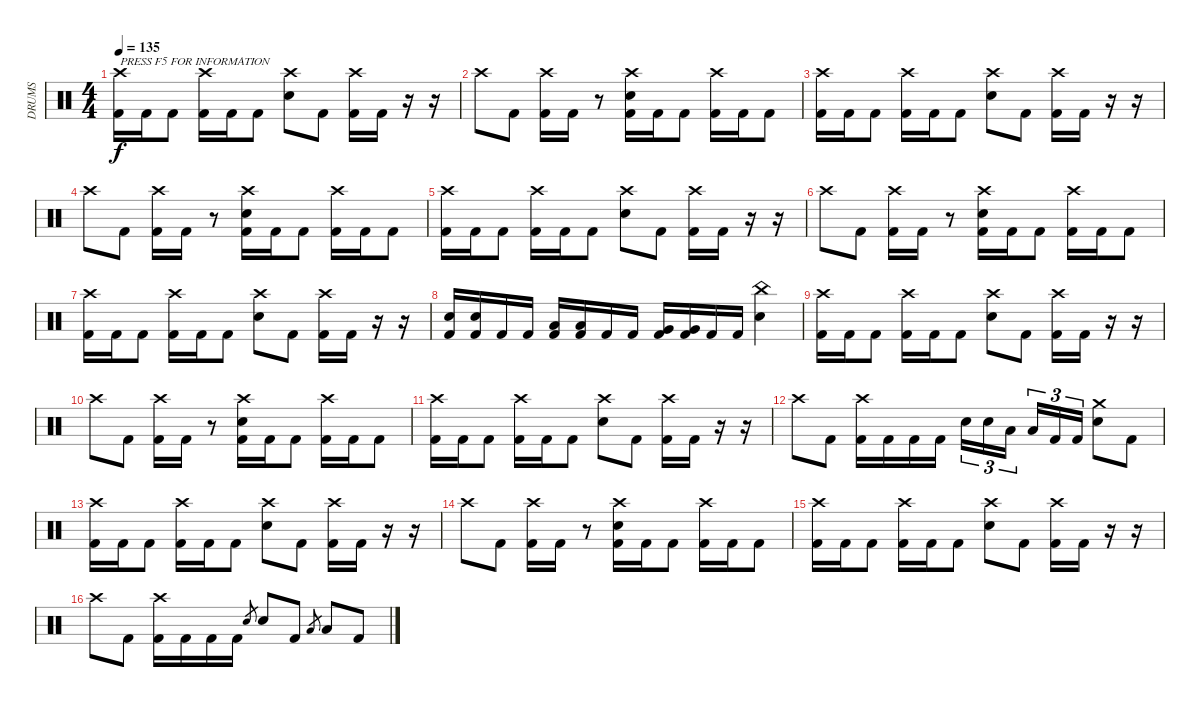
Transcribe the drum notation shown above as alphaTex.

\track ("DRUMS" "DRUMS") {instrument percussion}
\staff {score}
\articulation defaults
\ts (4 4)
\tempo 135
\clef neutral
\ks c
("Crash high (hit)" "Kick (hit) 2").16{txt "PRESS F5 FOR INFORMATION" dy f} "Kick (hit) 2".16 "Kick (hit) 2".8 ("Crash high (hit)" "Kick (hit) 2").16 "Kick (hit) 2".16 "Kick (hit) 2".8 ("Crash high (hit)" "Electric Snare (hit)").8 "Kick (hit) 2".8 ("Crash high (hit)" "Kick (hit) 2").16 "Kick (hit) 2".16 r.16 r.16 |
"Crash high (hit)".8 "Kick (hit) 2".8 ("Crash high (hit)" "Kick (hit) 2").16 "Kick (hit) 2".16 r.8 ("Crash high (hit)" "Electric Snare (hit)" "Kick (hit) 2").16 "Kick (hit) 2".16 "Kick (hit) 2".8 ("Crash high (hit)" "Kick (hit) 2").16 "Kick (hit) 2".16 "Kick (hit) 2".8 |
("Crash high (hit)" "Kick (hit) 2").16 "Kick (hit) 2".16 "Kick (hit) 2".8 ("Crash high (hit)" "Kick (hit) 2").16 "Kick (hit) 2".16 "Kick (hit) 2".8 ("Crash high (hit)" "Electric Snare (hit)").8 "Kick (hit) 2".8 ("Crash high (hit)" "Kick (hit) 2").16 "Kick (hit) 2".16 r.16 r.16 |
"Crash high (hit)".8 "Kick (hit) 2".8 ("Crash high (hit)" "Kick (hit) 2").16 "Kick (hit) 2".16 r.8 ("Crash high (hit)" "Electric Snare (hit)" "Kick (hit) 2").16 "Kick (hit) 2".16 "Kick (hit) 2".8 ("Crash high (hit)" "Kick (hit) 2").16 "Kick (hit) 2".16 "Kick (hit) 2".8 |
("Crash high (hit)" "Kick (hit) 2").16 "Kick (hit) 2".16 "Kick (hit) 2".8 ("Crash high (hit)" "Kick (hit) 2").16 "Kick (hit) 2".16 "Kick (hit) 2".8 ("Crash high (hit)" "Electric Snare (hit)").8 "Kick (hit) 2".8 ("Crash high (hit)" "Kick (hit) 2").16 "Kick (hit) 2".16 r.16 r.16 |
"Crash high (hit)".8 "Kick (hit) 2".8 ("Crash high (hit)" "Kick (hit) 2").16 "Kick (hit) 2".16 r.8 ("Crash high (hit)" "Electric Snare (hit)" "Kick (hit) 2").16 "Kick (hit) 2".16 "Kick (hit) 2".8 ("Crash high (hit)" "Kick (hit) 2").16 "Kick (hit) 2".16 "Kick (hit) 2".8 |
("Crash high (hit)" "Kick (hit) 2").16 "Kick (hit) 2".16 "Kick (hit) 2".8 ("Crash high (hit)" "Kick (hit) 2").16 "Kick (hit) 2".16 "Kick (hit) 2".8 ("Crash high (hit)" "Electric Snare (hit)").8 "Kick (hit) 2".8 ("Crash high (hit)" "Kick (hit) 2").16 "Kick (hit) 2".16 r.16 r.16 |
("Electric Snare (hit)" "Kick (hit) 2").16 ("Electric Snare (hit)" "Kick (hit) 2").16 "Kick (hit) 2".16 "Kick (hit) 2".16 ("Low Tom (hit)" "Kick (hit) 2").16 ("Low Tom (hit)" "Kick (hit) 2").16 "Kick (hit) 2".16 "Kick (hit) 2".16 ("Very Low Tom (hit)" "Kick (hit) 2").16 ("Very Low Tom (hit)" "Kick (hit) 2").16 "Kick (hit) 2".16 "Kick (hit) 2".16 ("China (hit)" "Electric Snare (hit)").4 |
("Crash high (hit)" "Kick (hit) 2").16 "Kick (hit) 2".16 "Kick (hit) 2".8 ("Crash high (hit)" "Kick (hit) 2").16 "Kick (hit) 2".16 "Kick (hit) 2".8 ("Crash high (hit)" "Electric Snare (hit)").8 "Kick (hit) 2".8 ("Crash high (hit)" "Kick (hit) 2").16 "Kick (hit) 2".16 r.16 r.16 |
"Crash high (hit)".8 "Kick (hit) 2".8 ("Crash high (hit)" "Kick (hit) 2").16 "Kick (hit) 2".16 r.8 ("Crash high (hit)" "Electric Snare (hit)" "Kick (hit) 2").16 "Kick (hit) 2".16 "Kick (hit) 2".8 ("Crash high (hit)" "Kick (hit) 2").16 "Kick (hit) 2".16 "Kick (hit) 2".8 |
("Crash high (hit)" "Kick (hit) 2").16 "Kick (hit) 2".16 "Kick (hit) 2".8 ("Crash high (hit)" "Kick (hit) 2").16 "Kick (hit) 2".16 "Kick (hit) 2".8 ("Crash high (hit)" "Electric Snare (hit)").8 "Kick (hit) 2".8 ("Crash high (hit)" "Kick (hit) 2").16 "Kick (hit) 2".16 r.16 r.16 |
"Crash high (hit)".8 "Kick (hit) 2".8 ("Crash high (hit)" "Kick (hit) 2").16 "Kick (hit) 2".16 "Kick (hit) 2".16 "Kick (hit) 2".16 "Electric Snare (hit)".16{tu (3 2)} "Electric Snare (hit)".16{tu (3 2)} "Low Tom (hit)".16{tu (3 2)} "Low Tom (hit)".16{tu (3 2)} "Kick (hit) 2".16{tu (3 2)} "Kick (hit) 2".16{tu (3 2)} ("Crash medium (hit)" "Electric Snare (hit)").8 "Kick (hit) 2".8 |
("Crash high (hit)" "Kick (hit) 2").16 "Kick (hit) 2".16 "Kick (hit) 2".8 ("Crash high (hit)" "Kick (hit) 2").16 "Kick (hit) 2".16 "Kick (hit) 2".8 ("Crash high (hit)" "Electric Snare (hit)").8 "Kick (hit) 2".8 ("Crash high (hit)" "Kick (hit) 2").16 "Kick (hit) 2".16 r.16 r.16 |
"Crash high (hit)".8 "Kick (hit) 2".8 ("Crash high (hit)" "Kick (hit) 2").16 "Kick (hit) 2".16 r.8 ("Crash high (hit)" "Electric Snare (hit)" "Kick (hit) 2").16 "Kick (hit) 2".16 "Kick (hit) 2".8 ("Crash high (hit)" "Kick (hit) 2").16 "Kick (hit) 2".16 "Kick (hit) 2".8 |
("Crash high (hit)" "Kick (hit) 2").16 "Kick (hit) 2".16 "Kick (hit) 2".8 ("Crash high (hit)" "Kick (hit) 2").16 "Kick (hit) 2".16 "Kick (hit) 2".8 ("Crash high (hit)" "Electric Snare (hit)").8 "Kick (hit) 2".8 ("Crash high (hit)" "Kick (hit) 2").16 "Kick (hit) 2".16 r.16 r.16 |
"Crash high (hit)".8 "Kick (hit) 2".8 ("Crash high (hit)" "Kick (hit) 2").16 "Kick (hit) 2".16 "Kick (hit) 2".16 "Kick (hit) 2".16 "Electric Snare (hit)".8{gr} "Electric Snare (hit)".8 "Kick (hit) 2".8 "Low Tom (hit)".8{gr} "Low Tom (hit)".8 "Kick (hit) 2".8
